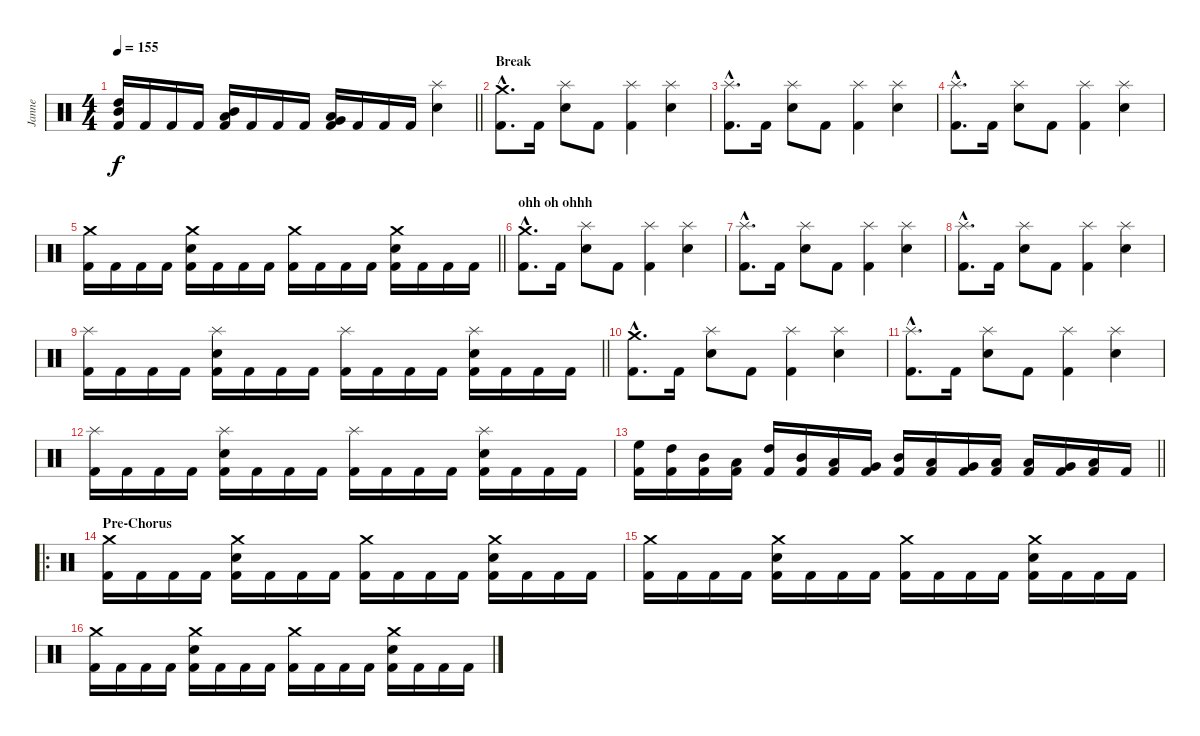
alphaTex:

\track ("Janne" "Janne") {instrument percussion}
\staff {score}
\articulation defaults
\ts (4 4)
\tempo 155
\clef neutral
\barLineRight lightlight
\ks c
("Kick (hit) 2" "High Tom (hit)" "Mid Tom (hit)").16{dy f} "Kick (hit) 2".16 "Kick (hit) 2".16 "Kick (hit) 2".16 ("Kick (hit) 2" "Mid Tom (hit)" "Low Tom (hit)").16 "Kick (hit) 2".16 "Kick (hit) 2".16 "Kick (hit) 2".16 ("Kick (hit) 2" "Low Tom (hit)" "Very Low Tom (hit)").16 "Kick (hit) 2".16 "Kick (hit) 2".16 "Kick (hit) 2".16 ("Snare (hit) 2" "Splash (hit)").4 |
\section ("" "Break")
("Kick (hit) 2"{hac} "Crash medium (hit)"{hac}).8{d} "Kick (hit) 2".16 ("Snare (hit) 2" "Splash (hit)").8 "Kick (hit) 2".8 ("Kick (hit) 2" "Splash (hit)").4 ("Snare (hit) 2" "Splash (hit)").4 |
("Kick (hit) 2"{hac} "Splash (hit)"{hac}).8{d} "Kick (hit) 2".16 ("Snare (hit) 2" "Splash (hit)").8 "Kick (hit) 2".8 ("Kick (hit) 2" "Splash (hit)").4 ("Snare (hit) 2" "Splash (hit)").4 |
("Kick (hit) 2"{hac} "Splash (hit)"{hac}).8{d} "Kick (hit) 2".16 ("Snare (hit) 2" "Splash (hit)").8 "Kick (hit) 2".8 ("Kick (hit) 2" "Splash (hit)").4 ("Snare (hit) 2" "Splash (hit)").4 |
\barLineRight lightlight
("Kick (hit) 2" "Crash medium (hit)").16 "Kick (hit) 2".16 "Kick (hit) 2".16 "Kick (hit) 2".16 ("Kick (hit) 2" "Snare (hit) 2" "Crash medium (hit)").16 "Kick (hit) 2".16 "Kick (hit) 2".16 "Kick (hit) 2".16 ("Kick (hit) 2" "Crash medium (hit)").16 "Kick (hit) 2".16 "Kick (hit) 2".16 "Kick (hit) 2".16 ("Kick (hit) 2" "Snare (hit) 2" "Crash medium (hit)").16 "Kick (hit) 2".16 "Kick (hit) 2".16 "Kick (hit) 2".16 |
\section ("" "ohh oh ohhh")
("Kick (hit) 2"{hac} "Crash medium (hit)"{hac}).8{d} "Kick (hit) 2".16 ("Snare (hit) 2" "Splash (hit)").8 "Kick (hit) 2".8 ("Kick (hit) 2" "Splash (hit)").4 ("Snare (hit) 2" "Splash (hit)").4 |
("Kick (hit) 2"{hac} "Splash (hit)"{hac}).8{d} "Kick (hit) 2".16 ("Snare (hit) 2" "Splash (hit)").8 "Kick (hit) 2".8 ("Kick (hit) 2" "Splash (hit)").4 ("Snare (hit) 2" "Splash (hit)").4 |
("Kick (hit) 2"{hac} "Splash (hit)"{hac}).8{d} "Kick (hit) 2".16 ("Snare (hit) 2" "Splash (hit)").8 "Kick (hit) 2".8 ("Kick (hit) 2" "Splash (hit)").4 ("Snare (hit) 2" "Splash (hit)").4 |
\barLineRight lightlight
("Kick (hit) 2" "Splash (hit)").16 "Kick (hit) 2".16 "Kick (hit) 2".16 "Kick (hit) 2".16 ("Kick (hit) 2" "Snare (hit) 2" "Splash (hit)").16 "Kick (hit) 2".16 "Kick (hit) 2".16 "Kick (hit) 2".16 ("Kick (hit) 2" "Splash (hit)").16 "Kick (hit) 2".16 "Kick (hit) 2".16 "Kick (hit) 2".16 ("Kick (hit) 2" "Snare (hit) 2" "Splash (hit)").16 "Kick (hit) 2".16 "Kick (hit) 2".16 "Kick (hit) 2".16 |
("Kick (hit) 2"{hac} "Crash medium (hit)"{hac}).8{d} "Kick (hit) 2".16 ("Snare (hit) 2" "Splash (hit)").8 "Kick (hit) 2".8 ("Kick (hit) 2" "Splash (hit)").4 ("Snare (hit) 2" "Splash (hit)").4 |
("Kick (hit) 2"{hac} "Splash (hit)"{hac}).8{d} "Kick (hit) 2".16 ("Snare (hit) 2" "Splash (hit)").8 "Kick (hit) 2".8 ("Kick (hit) 2" "Splash (hit)").4 ("Snare (hit) 2" "Splash (hit)").4 |
("Kick (hit) 2" "Splash (hit)").16 "Kick (hit) 2".16 "Kick (hit) 2".16 "Kick (hit) 2".16 ("Kick (hit) 2" "Snare (hit) 2" "Splash (hit)").16 "Kick (hit) 2".16 "Kick (hit) 2".16 "Kick (hit) 2".16 ("Kick (hit) 2" "Splash (hit)").16 "Kick (hit) 2".16 "Kick (hit) 2".16 "Kick (hit) 2".16 ("Kick (hit) 2" "Snare (hit) 2" "Splash (hit)").16 "Kick (hit) 2".16 "Kick (hit) 2".16 "Kick (hit) 2".16 |
\barLineRight lightlight
("Kick (hit) 2" "High Floor Tom (hit)").16 ("Kick (hit) 2" "High Tom (hit)").16 ("Kick (hit) 2" "Mid Tom (hit)").16 ("Kick (hit) 2" "Low Tom (hit)").16 ("Kick (hit) 2" "High Tom (hit)").16 ("Kick (hit) 2" "Mid Tom (hit)").16 ("Kick (hit) 2" "Low Tom (hit)").16 ("Kick (hit) 2" "Very Low Tom (hit)").16 ("Kick (hit) 2" "Mid Tom (hit)").16 ("Kick (hit) 2" "Low Tom (hit)").16 ("Kick (hit) 2" "Very Low Tom (hit)").16 ("Kick (hit) 2" "Low Floor Tom (hit)").16 ("Kick (hit) 2" "Low Tom (hit)").16 ("Kick (hit) 2" "Very Low Tom (hit)").16 ("Kick (hit) 2" "Low Floor Tom (hit)").16 "Kick (hit) 2".16 |
\ro
\section ("" "Pre-Chorus")
("Kick (hit) 2" "Crash medium (hit)").16 "Kick (hit) 2".16 "Kick (hit) 2".16 "Kick (hit) 2".16 ("Kick (hit) 2" "Snare (hit) 2" "Crash medium (hit)").16 "Kick (hit) 2".16 "Kick (hit) 2".16 "Kick (hit) 2".16 ("Kick (hit) 2" "Crash medium (hit)").16 "Kick (hit) 2".16 "Kick (hit) 2".16 "Kick (hit) 2".16 ("Kick (hit) 2" "Snare (hit) 2" "Crash medium (hit)").16 "Kick (hit) 2".16 "Kick (hit) 2".16 "Kick (hit) 2".16 |
("Kick (hit) 2" "Crash medium (hit)").16 "Kick (hit) 2".16 "Kick (hit) 2".16 "Kick (hit) 2".16 ("Kick (hit) 2" "Snare (hit) 2" "Crash medium (hit)").16 "Kick (hit) 2".16 "Kick (hit) 2".16 "Kick (hit) 2".16 ("Kick (hit) 2" "Crash medium (hit)").16 "Kick (hit) 2".16 "Kick (hit) 2".16 "Kick (hit) 2".16 ("Kick (hit) 2" "Snare (hit) 2" "Crash medium (hit)").16 "Kick (hit) 2".16 "Kick (hit) 2".16 "Kick (hit) 2".16 |
("Kick (hit) 2" "Crash medium (hit)").16 "Kick (hit) 2".16 "Kick (hit) 2".16 "Kick (hit) 2".16 ("Kick (hit) 2" "Snare (hit) 2" "Crash medium (hit)").16 "Kick (hit) 2".16 "Kick (hit) 2".16 "Kick (hit) 2".16 ("Kick (hit) 2" "Crash medium (hit)").16 "Kick (hit) 2".16 "Kick (hit) 2".16 "Kick (hit) 2".16 ("Kick (hit) 2" "Snare (hit) 2" "Crash medium (hit)").16 "Kick (hit) 2".16 "Kick (hit) 2".16 "Kick (hit) 2".16
